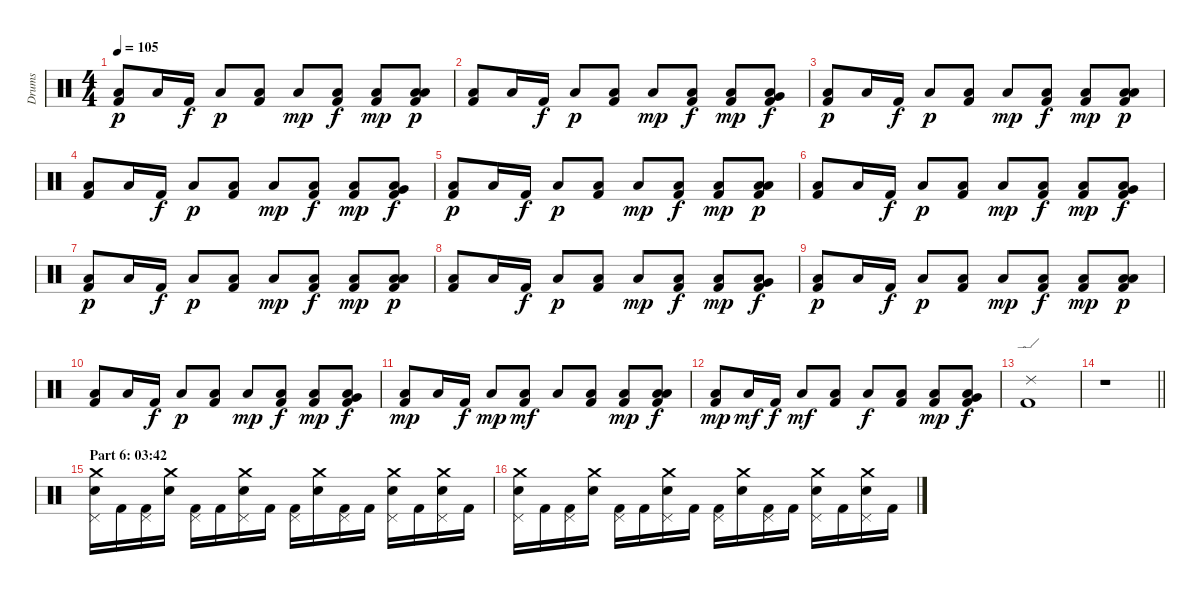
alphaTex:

\track ("Drums" "Drums") {instrument percussion}
\staff {score}
\articulation defaults
\ts (4 4)
\tempo 105
\clef neutral
\ks c
("Low Floor Tom (hit)" "Kick (hit) 2").8{dy p} "Low Floor Tom (hit)".16 "Kick (hit) 2".16{dy f} "Low Floor Tom (hit)".8{dy p} ("Low Floor Tom (hit)" "Kick (hit) 2").8 "Low Floor Tom (hit)".8{dy mp} ("Low Floor Tom (hit)" "Kick (hit) 2").8{dy f} ("Low Floor Tom (hit)" "Kick (hit) 2").8{dy mp} ("Low Floor Tom (hit)" "Low Tom (hit)" "Kick (hit) 2").8{dy p} |
("Low Floor Tom (hit)" "Kick (hit) 2").8 "Low Floor Tom (hit)".16 "Kick (hit) 2".16{dy f} "Low Floor Tom (hit)".8{dy p} ("Low Floor Tom (hit)" "Kick (hit) 2").8 "Low Floor Tom (hit)".8{dy mp} ("Low Floor Tom (hit)" "Kick (hit) 2").8{dy f} ("Low Floor Tom (hit)" "Kick (hit) 2").8{dy mp} ("Very Low Tom (hit)" "Low Tom (hit)" "Kick (hit) 2").8{dy f} |
("Low Floor Tom (hit)" "Kick (hit) 2").8{dy p} "Low Floor Tom (hit)".16 "Kick (hit) 2".16{dy f} "Low Floor Tom (hit)".8{dy p} ("Low Floor Tom (hit)" "Kick (hit) 2").8 "Low Floor Tom (hit)".8{dy mp} ("Low Floor Tom (hit)" "Kick (hit) 2").8{dy f} ("Low Floor Tom (hit)" "Kick (hit) 2").8{dy mp} ("Low Floor Tom (hit)" "Low Tom (hit)" "Kick (hit) 2").8{dy p} |
("Low Floor Tom (hit)" "Kick (hit) 2").8 "Low Floor Tom (hit)".16 "Kick (hit) 2".16{dy f} "Low Floor Tom (hit)".8{dy p} ("Low Floor Tom (hit)" "Kick (hit) 2").8 "Low Floor Tom (hit)".8{dy mp} ("Low Floor Tom (hit)" "Kick (hit) 2").8{dy f} ("Low Floor Tom (hit)" "Kick (hit) 2").8{dy mp} ("Very Low Tom (hit)" "Low Tom (hit)" "Kick (hit) 2").8{dy f} |
("Low Floor Tom (hit)" "Kick (hit) 2").8{dy p} "Low Floor Tom (hit)".16 "Kick (hit) 2".16{dy f} "Low Floor Tom (hit)".8{dy p} ("Low Floor Tom (hit)" "Kick (hit) 2").8 "Low Floor Tom (hit)".8{dy mp} ("Low Floor Tom (hit)" "Kick (hit) 2").8{dy f} ("Low Floor Tom (hit)" "Kick (hit) 2").8{dy mp} ("Low Floor Tom (hit)" "Low Tom (hit)" "Kick (hit) 2").8{dy p} |
("Low Floor Tom (hit)" "Kick (hit) 2").8 "Low Floor Tom (hit)".16 "Kick (hit) 2".16{dy f} "Low Floor Tom (hit)".8{dy p} ("Low Floor Tom (hit)" "Kick (hit) 2").8 "Low Floor Tom (hit)".8{dy mp} ("Low Floor Tom (hit)" "Kick (hit) 2").8{dy f} ("Low Floor Tom (hit)" "Kick (hit) 2").8{dy mp} ("Very Low Tom (hit)" "Low Tom (hit)" "Kick (hit) 2").8{dy f} |
("Low Floor Tom (hit)" "Kick (hit) 2").8{dy p} "Low Floor Tom (hit)".16 "Kick (hit) 2".16{dy f} "Low Floor Tom (hit)".8{dy p} ("Low Floor Tom (hit)" "Kick (hit) 2").8 "Low Floor Tom (hit)".8{dy mp} ("Low Floor Tom (hit)" "Kick (hit) 2").8{dy f} ("Low Floor Tom (hit)" "Kick (hit) 2").8{dy mp} ("Low Floor Tom (hit)" "Low Tom (hit)" "Kick (hit) 2").8{dy p} |
("Low Floor Tom (hit)" "Kick (hit) 2").8 "Low Floor Tom (hit)".16 "Kick (hit) 2".16{dy f} "Low Floor Tom (hit)".8{dy p} ("Low Floor Tom (hit)" "Kick (hit) 2").8 "Low Floor Tom (hit)".8{dy mp} ("Low Floor Tom (hit)" "Kick (hit) 2").8{dy f} ("Low Floor Tom (hit)" "Kick (hit) 2").8{dy mp} ("Very Low Tom (hit)" "Low Tom (hit)" "Kick (hit) 2").8{dy f} |
("Low Floor Tom (hit)" "Kick (hit) 2").8{dy p} "Low Floor Tom (hit)".16 "Kick (hit) 2".16{dy f} "Low Floor Tom (hit)".8{dy p} ("Low Floor Tom (hit)" "Kick (hit) 2").8 "Low Floor Tom (hit)".8{dy mp} ("Low Floor Tom (hit)" "Kick (hit) 2").8{dy f} ("Low Floor Tom (hit)" "Kick (hit) 2").8{dy mp} ("Low Floor Tom (hit)" "Low Tom (hit)" "Kick (hit) 2").8{dy p} |
("Low Floor Tom (hit)" "Kick (hit) 2").8 "Low Floor Tom (hit)".16 "Kick (hit) 2".16{dy f} "Low Floor Tom (hit)".8{dy p} ("Low Floor Tom (hit)" "Kick (hit) 2").8 "Low Floor Tom (hit)".8{dy mp} ("Low Floor Tom (hit)" "Kick (hit) 2").8{dy f} ("Low Floor Tom (hit)" "Kick (hit) 2").8{dy mp} ("Very Low Tom (hit)" "Low Tom (hit)" "Kick (hit) 2").8{dy f} |
("Low Floor Tom (hit)" "Kick (hit) 2").8{dy mp} "Low Floor Tom (hit)".16 "Kick (hit) 2".16{dy f} "Low Floor Tom (hit)".8{dy mp} ("Low Floor Tom (hit)" "Kick (hit) 2").8{dy mf} "Low Floor Tom (hit)".8 ("Low Floor Tom (hit)" "Kick (hit) 2").8 ("Low Floor Tom (hit)" "Kick (hit) 2").8{dy mp} ("Low Floor Tom (hit)" "Low Tom (hit)" "Kick (hit) 2").8{dy f} |
("Low Floor Tom (hit)" "Kick (hit) 2").8{dy mp} "Low Floor Tom (hit)".16{dy mf} "Kick (hit) 2".16{dy f} "Low Floor Tom (hit)".8{dy mf} ("Low Floor Tom (hit)" "Kick (hit) 2").8 "Low Floor Tom (hit)".8{dy f} ("Low Floor Tom (hit)" "Kick (hit) 2").8 ("Low Floor Tom (hit)" "Kick (hit) 2").8{dy mp} ("Very Low Tom (hit)" "Low Tom (hit)" "Kick (hit) 2").8{dy f} |
("Ride (edge) 2" "Kick (hit) 2").1 |
\barLineRight lightlight
r.1{volume 12} |
\section ("" "Part 6: 03:42")
("Crash medium (hit)" "Pedal Hi-Hat (hit)" "Electric Snare (hit)").16 "Kick (hit) 2".16 ("Pedal Hi-Hat (hit)" "Kick (hit) 2").16 ("Crash medium (hit)" "Electric Snare (hit)").16 ("Pedal Hi-Hat (hit)" "Kick (hit) 2").16 "Kick (hit) 2".16 ("Crash medium (hit)" "Pedal Hi-Hat (hit)" "Electric Snare (hit)").16 "Kick (hit) 2".16 ("Pedal Hi-Hat (hit)" "Kick (hit) 2").16 ("Crash medium (hit)" "Electric Snare (hit)").16 ("Pedal Hi-Hat (hit)" "Kick (hit) 2").16 "Kick (hit) 2".16 ("Crash medium (hit)" "Pedal Hi-Hat (hit)" "Electric Snare (hit)").16 "Kick (hit) 2".16 ("Crash medium (hit)" "Pedal Hi-Hat (hit)" "Electric Snare (hit)").16 "Kick (hit) 2".16 |
("Crash medium (hit)" "Pedal Hi-Hat (hit)" "Electric Snare (hit)").16 "Kick (hit) 2".16 ("Pedal Hi-Hat (hit)" "Kick (hit) 2").16 ("Crash medium (hit)" "Electric Snare (hit)").16 ("Pedal Hi-Hat (hit)" "Kick (hit) 2").16 "Kick (hit) 2".16 ("Crash medium (hit)" "Pedal Hi-Hat (hit)" "Electric Snare (hit)").16 "Kick (hit) 2".16 ("Pedal Hi-Hat (hit)" "Kick (hit) 2").16 ("Crash medium (hit)" "Electric Snare (hit)").16 ("Pedal Hi-Hat (hit)" "Kick (hit) 2").16 "Kick (hit) 2".16 ("Crash medium (hit)" "Pedal Hi-Hat (hit)" "Electric Snare (hit)").16 "Kick (hit) 2".16 ("Crash medium (hit)" "Pedal Hi-Hat (hit)" "Electric Snare (hit)").16 "Kick (hit) 2".16
